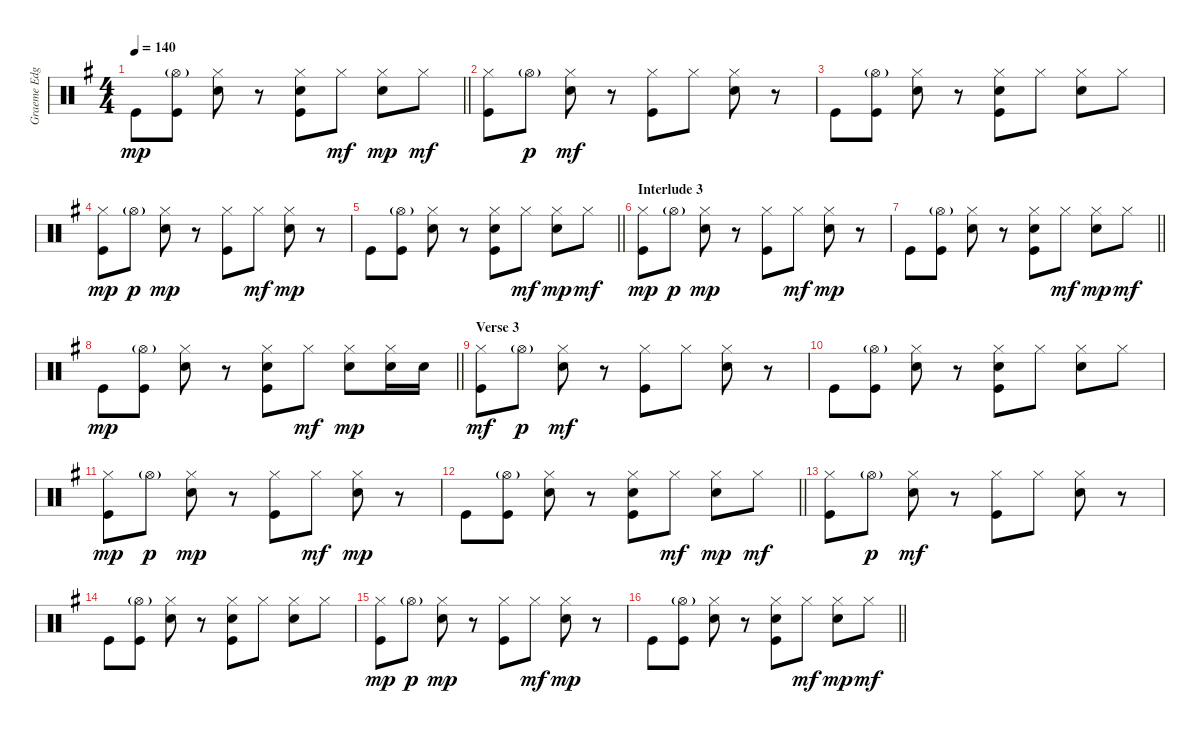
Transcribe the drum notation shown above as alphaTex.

\track ("Graeme Edge" "Graeme Edg") {instrument percussion}
\staff {score}
\articulation defaults
\ts (4 4)
\tempo 140
\clef neutral
\barLineRight lightlight
\ks g "Kick (hit)".8{dy mp}
("Hi-Hat (open)"{g} "Kick (hit)").8 ("Hi-Hat (closed)" "Snare (hit) 2").8 r.8 ("Hi-Hat (closed)" "Hand Clap (hit)" "Kick (hit)").8 "Hi-Hat (closed)".8{dy mf} ("Hi-Hat (closed)" "Snare (hit) 2").8{dy mp} "Hi-Hat (closed)".8{dy mf} |
\section ("" "")
("Hi-Hat (closed)" "Kick (hit)").8 "Hi-Hat (open)"{g}.8{dy p} ("Hi-Hat (closed)" "Snare (hit) 2").8{dy mf} r.8 ("Hi-Hat (closed)" "Kick (hit)").8 "Hi-Hat (closed)".8 ("Hi-Hat (closed)" "Snare (hit) 2").8 r.8 |
"Kick (hit)".8 ("Hi-Hat (open)"{g} "Kick (hit)").8 ("Hi-Hat (closed)" "Snare (hit) 2").8 r.8 ("Hi-Hat (closed)" "Hand Clap (hit)" "Kick (hit)").8 "Hi-Hat (closed)".8 ("Hi-Hat (closed)" "Snare (hit) 2").8 "Hi-Hat (closed)".8 |
("Hi-Hat (closed)" "Kick (hit)").8{dy mp} "Hi-Hat (open)"{g}.8{dy p} ("Hi-Hat (closed)" "Snare (hit) 2").8{dy mp} r.8 ("Hi-Hat (closed)" "Kick (hit)").8 "Hi-Hat (closed)".8{dy mf} ("Hi-Hat (closed)" "Snare (hit) 2").8{dy mp} r.8 |
\barLineRight lightlight "Kick (hit)".8
("Hi-Hat (open)"{g} "Kick (hit)").8 ("Hi-Hat (closed)" "Snare (hit) 2").8 r.8 ("Hi-Hat (closed)" "Hand Clap (hit)" "Kick (hit)").8 "Hi-Hat (closed)".8{dy mf} ("Hi-Hat (closed)" "Snare (hit) 2").8{dy mp} "Hi-Hat (closed)".8{dy mf} |
\section ("" "Interlude 3")
("Hi-Hat (closed)" "Kick (hit)").8{dy mp} "Hi-Hat (open)"{g}.8{dy p} ("Hi-Hat (closed)" "Snare (hit) 2").8{dy mp} r.8 ("Hi-Hat (closed)" "Kick (hit)").8 "Hi-Hat (closed)".8{dy mf} ("Hi-Hat (closed)" "Snare (hit) 2").8{dy mp} r.8 |
\barLineRight lightlight "Kick (hit)".8
("Hi-Hat (open)"{g} "Kick (hit)").8 ("Hi-Hat (closed)" "Snare (hit) 2").8 r.8 ("Hi-Hat (closed)" "Hand Clap (hit)" "Kick (hit)").8 "Hi-Hat (closed)".8{dy mf} ("Hi-Hat (closed)" "Snare (hit) 2").8{dy mp} "Hi-Hat (closed)".8{dy mf} |
\barLineRight lightlight "Kick (hit)".8{dy mp}
("Hi-Hat (open)"{g} "Kick (hit)").8 ("Hi-Hat (closed)" "Snare (hit) 2").8 r.8 ("Hi-Hat (closed)" "Hand Clap (hit)" "Kick (hit)").8 "Hi-Hat (closed)".8{dy mf} ("Hi-Hat (closed)" "Snare (hit) 2").8{dy mp} ("Hi-Hat (closed)" "Snare (hit) 2").16 "Snare (hit) 2".16 |
\section ("" "Verse 3")
("Hi-Hat (closed)" "Kick (hit)").8{dy mf} "Hi-Hat (open)"{g}.8{dy p} ("Hi-Hat (closed)" "Snare (hit) 2").8{dy mf} r.8 ("Hi-Hat (closed)" "Kick (hit)").8 "Hi-Hat (closed)".8 ("Hi-Hat (closed)" "Snare (hit) 2").8 r.8 |
"Kick (hit)".8 ("Hi-Hat (open)"{g} "Kick (hit)").8 ("Hi-Hat (closed)" "Snare (hit) 2").8 r.8 ("Hi-Hat (closed)" "Hand Clap (hit)" "Kick (hit)").8 "Hi-Hat (closed)".8 ("Hi-Hat (closed)" "Snare (hit) 2").8 "Hi-Hat (closed)".8 |
("Hi-Hat (closed)" "Kick (hit)").8{dy mp} "Hi-Hat (open)"{g}.8{dy p} ("Hi-Hat (closed)" "Snare (hit) 2").8{dy mp} r.8 ("Hi-Hat (closed)" "Kick (hit)").8 "Hi-Hat (closed)".8{dy mf} ("Hi-Hat (closed)" "Snare (hit) 2").8{dy mp} r.8 |
\barLineRight lightlight "Kick (hit)".8
("Hi-Hat (open)"{g} "Kick (hit)").8 ("Hi-Hat (closed)" "Snare (hit) 2").8 r.8 ("Hi-Hat (closed)" "Hand Clap (hit)" "Kick (hit)").8 "Hi-Hat (closed)".8{dy mf} ("Hi-Hat (closed)" "Snare (hit) 2").8{dy mp} "Hi-Hat (closed)".8{dy mf} |
("Hi-Hat (closed)" "Kick (hit)").8 "Hi-Hat (open)"{g}.8{dy p} ("Hi-Hat (closed)" "Snare (hit) 2").8{dy mf} r.8 ("Hi-Hat (closed)" "Kick (hit)").8 "Hi-Hat (closed)".8 ("Hi-Hat (closed)" "Snare (hit) 2").8 r.8 |
"Kick (hit)".8 ("Hi-Hat (open)"{g} "Kick (hit)").8 ("Hi-Hat (closed)" "Snare (hit) 2").8 r.8 ("Hi-Hat (closed)" "Hand Clap (hit)" "Kick (hit)").8 "Hi-Hat (closed)".8 ("Hi-Hat (closed)" "Snare (hit) 2").8 "Hi-Hat (closed)".8 |
("Hi-Hat (closed)" "Kick (hit)").8{dy mp} "Hi-Hat (open)"{g}.8{dy p} ("Hi-Hat (closed)" "Snare (hit) 2").8{dy mp} r.8 ("Hi-Hat (closed)" "Kick (hit)").8 "Hi-Hat (closed)".8{dy mf} ("Hi-Hat (closed)" "Snare (hit) 2").8{dy mp} r.8 |
\barLineRight lightlight "Kick (hit)".8
("Hi-Hat (open)"{g} "Kick (hit)").8 ("Hi-Hat (closed)" "Snare (hit) 2").8 r.8 ("Hi-Hat (closed)" "Hand Clap (hit)" "Kick (hit)").8 "Hi-Hat (closed)".8{dy mf} ("Hi-Hat (closed)" "Snare (hit) 2").8{dy mp} "Hi-Hat (closed)".8{dy mf}
